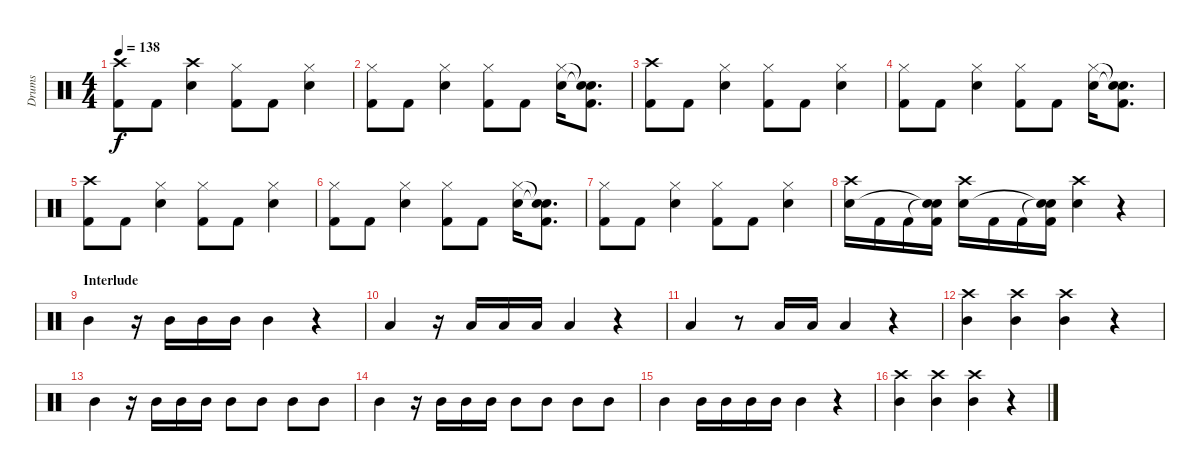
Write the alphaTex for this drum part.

\track ("Drums" "Drums") {instrument percussion}
\staff {score}
\articulation defaults
\ts (4 4)
\tempo 138
\clef neutral
\ks c
("Crash high (hit)" "Kick (hit) 2").8{dy f} "Kick (hit) 2".8 ("Crash high (hit)" "Snare (hit) 2").4 ("Hi-Hat (closed)" "Kick (hit) 2").8 "Kick (hit) 2".8 ("Hi-Hat (closed)" "Snare (hit) 2").4 |
("Hi-Hat (closed)" "Kick (hit) 2").8 "Kick (hit) 2".8 ("Hi-Hat (closed)" "Snare (hit) 2").4 ("Hi-Hat (closed)" "Kick (hit) 2").8 "Kick (hit) 2".8 ("Hi-Hat (closed)" "Snare (hit) 2").16 ("Snare (hit)"{t} "Snare (hit)"{t} "Kick (hit) 2").8{d} |
("Crash high (hit)" "Kick (hit) 2").8 "Kick (hit) 2".8 ("Hi-Hat (closed)" "Snare (hit) 2").4 ("Hi-Hat (closed)" "Kick (hit) 2").8 "Kick (hit) 2".8 ("Hi-Hat (closed)" "Snare (hit) 2").4 |
("Hi-Hat (closed)" "Kick (hit) 2").8 "Kick (hit) 2".8 ("Hi-Hat (closed)" "Snare (hit) 2").4 ("Hi-Hat (closed)" "Kick (hit) 2").8 "Kick (hit) 2".8 ("Hi-Hat (closed)" "Snare (hit) 2").16 ("Snare (hit)"{t} "Snare (hit)"{t} "Kick (hit) 2").8{d} |
("Crash high (hit)" "Kick (hit) 2").8 "Kick (hit) 2".8 ("Hi-Hat (closed)" "Snare (hit) 2").4 ("Hi-Hat (closed)" "Kick (hit) 2").8 "Kick (hit) 2".8 ("Hi-Hat (closed)" "Snare (hit) 2").4 |
("Hi-Hat (closed)" "Kick (hit) 2").8 "Kick (hit) 2".8 ("Hi-Hat (closed)" "Snare (hit) 2").4 ("Hi-Hat (closed)" "Kick (hit) 2").8 "Kick (hit) 2".8 ("Hi-Hat (closed)" "Snare (hit) 2").16 ("Snare (hit)"{t} "Snare (hit)"{t} "Kick (hit) 2").8{d} |
("Hi-Hat (closed)" "Kick (hit) 2").8 "Kick (hit) 2".8 ("Hi-Hat (closed)" "Snare (hit) 2").4 ("Hi-Hat (closed)" "Kick (hit) 2").8 "Kick (hit) 2".8 ("Hi-Hat (closed)" "Snare (hit) 2").4 |
("Crash high (hit)" "Snare (hit) 2").16 "Kick (hit) 2".16 "Kick (hit) 2".16 ("Snare (hit)"{t} "Snare (hit)"{t} "Kick (hit) 2").16 ("Crash high (hit)" "Snare (hit) 2").16 "Kick (hit) 2".16 "Kick (hit) 2".16 ("Snare (hit)"{t} "Snare (hit)"{t} "Kick (hit) 2").16 ("Crash high (hit)" "Snare (hit) 2").4 r.4 |
\section ("" "Interlude")
"Mid Tom (hit)".4 r.16 "Mid Tom (hit)".16 "Mid Tom (hit)".16 "Mid Tom (hit)".16 "Mid Tom (hit)".4 r.4 |
"Low Tom (hit)".4 r.16 "Low Tom (hit)".16 "Low Tom (hit)".16 "Low Tom (hit)".16 "Low Tom (hit)".4 r.4 |
"Low Floor Tom (hit)".4 r.8 "Low Floor Tom (hit)".16 "Low Floor Tom (hit)".16 "Low Floor Tom (hit)".4 r.4 |
("Crash high (hit)" "Mid Tom (hit)").4 ("Crash high (hit)" "Mid Tom (hit)").4 ("Crash high (hit)" "Mid Tom (hit)").4 r.4 |
"Mid Tom (hit)".4 r.16 "Mid Tom (hit)".16 "Mid Tom (hit)".16 "Mid Tom (hit)".16 "Mid Tom (hit)".8 "Mid Tom (hit)".8 "Mid Tom (hit)".8 "Mid Tom (hit)".8 |
"Mid Tom (hit)".4 r.16 "Mid Tom (hit)".16 "Mid Tom (hit)".16 "Mid Tom (hit)".16 "Mid Tom (hit)".8 "Mid Tom (hit)".8 "Mid Tom (hit)".8 "Mid Tom (hit)".8 |
"Mid Tom (hit)".4 "Mid Tom (hit)".16 "Mid Tom (hit)".16 "Mid Tom (hit)".16 "Mid Tom (hit)".16 "Mid Tom (hit)".4 r.4 |
("Crash high (hit)" "Mid Tom (hit)").4 ("Crash high (hit)" "Mid Tom (hit)").4 ("Crash high (hit)" "Mid Tom (hit)").4 r.4
